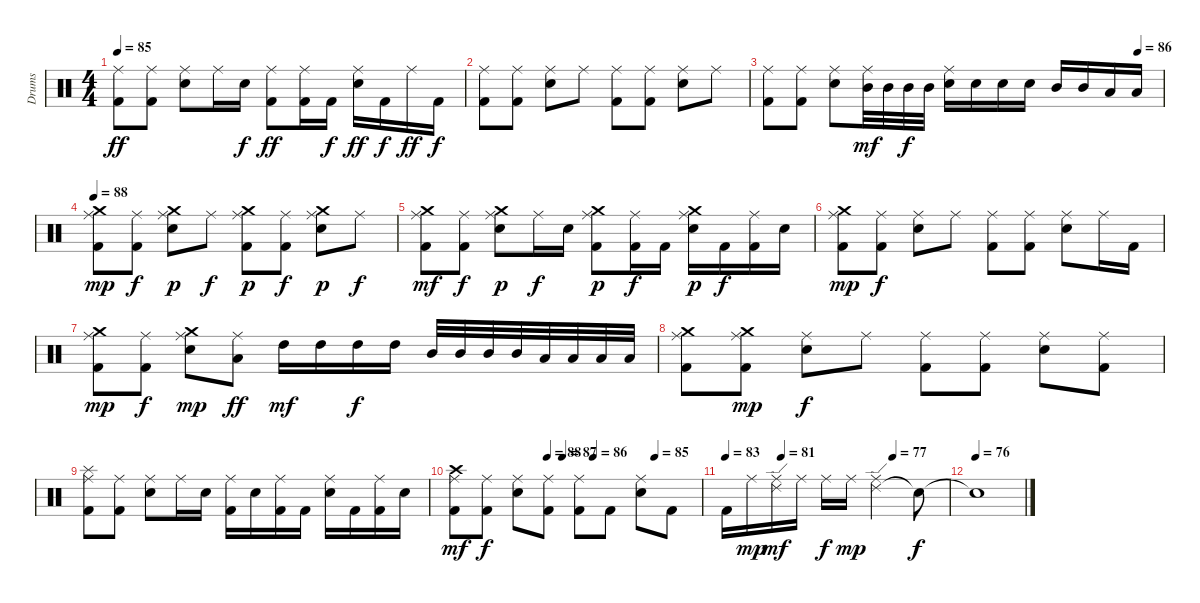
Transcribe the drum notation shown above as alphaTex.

\track ("Drums" "Drums") {instrument percussion}
\staff {score}
\articulation defaults
\ts (4 4)
\tempo 85
\clef neutral
\ks c
("Ride (middle)" "Kick (hit) 2").8{dy ff} ("Ride (middle)" "Kick (hit) 2").8 ("Ride (middle)" "Electric Snare (hit)").8 "Ride (middle)".16 "Electric Snare (hit)".16{dy f} ("Ride (middle)" "Kick (hit) 2").8{dy ff} ("Ride (middle)" "Kick (hit) 2").16 "Kick (hit) 2".16{dy f} ("Ride (middle)" "Electric Snare (hit)").16{dy ff} "Kick (hit) 2".16{dy f} "Ride (middle)".16{dy ff} "Kick (hit) 2".16{dy f} |
("Kick (hit) 2" "Ride (middle)").8 ("Kick (hit) 2" "Ride (middle)").8 ("Electric Snare (hit)" "Ride (middle)").8 "Ride (middle)".8 ("Kick (hit) 2" "Ride (middle)").8 ("Kick (hit) 2" "Ride (middle)").8 ("Electric Snare (hit)" "Ride (middle)").8 "Ride (middle)".8 |
\tempo (86 0.9375)
("Kick (hit) 2" "Ride (middle)").8 ("Kick (hit) 2" "Ride (middle)").8 ("Electric Snare (hit)" "Ride (middle)").8 ("Ride (middle)" "Mid Tom (hit)").32{dy mf} "Mid Tom (hit)".32 "Mid Tom (hit)".32{dy f} "Mid Tom (hit)".32 ("Ride (middle)" "Electric Snare (hit)").16 "Electric Snare (hit)".16 "Electric Snare (hit)".16 "Electric Snare (hit)".16 "Mid Tom (hit)".16 "Mid Tom (hit)".16 "Low Tom (hit)".16 "Low Tom (hit)".16 |
\tempo 88
("Ride (middle)" "Kick (hit) 2" "Crash medium (hit)").8{dy mp} ("Ride (middle)" "Kick (hit) 2").8{dy f} ("Ride (middle)" "Electric Snare (hit)" "Crash medium (hit)").8{dy p} "Ride (middle)".8{dy f} ("Ride (middle)" "Kick (hit) 2" "Crash medium (hit)").8{dy p} ("Ride (middle)" "Kick (hit) 2").8{dy f} ("Ride (middle)" "Electric Snare (hit)" "Crash medium (hit)").8{dy p} "Ride (middle)".8{dy f} |
("Ride (middle)" "Kick (hit) 2" "Crash medium (hit)").8{dy mf} ("Ride (middle)" "Kick (hit) 2").8{dy f} ("Ride (middle)" "Electric Snare (hit)" "Crash medium (hit)").8{dy p} "Ride (middle)".16{dy f} "Electric Snare (hit)".16 ("Ride (middle)" "Kick (hit) 2" "Crash medium (hit)").8{dy p} ("Ride (middle)" "Kick (hit) 2").16{dy f} "Kick (hit) 2".16 ("Ride (middle)" "Electric Snare (hit)" "Crash medium (hit)").16{dy p} "Kick (hit) 2".16{dy f} ("Ride (middle)" "Kick (hit) 2").16 "Electric Snare (hit)".16 |
("Ride (middle)" "Kick (hit) 2" "Crash medium (hit)").8{dy mp} ("Ride (middle)" "Kick (hit) 2").8{dy f} ("Ride (middle)" "Electric Snare (hit)").8 "Ride (middle)".8 ("Ride (middle)" "Kick (hit) 2").8 ("Ride (middle)" "Kick (hit) 2").8 ("Ride (middle)" "Electric Snare (hit)").8 "Ride (middle)".16 "Kick (hit) 2".16 |
("Crash medium (hit)" "Kick (hit) 2" "Ride (middle)").8{dy mp} ("Kick (hit) 2" "Ride (middle)").8{dy f} ("Electric Snare (hit)" "Ride (middle)" "Crash medium (hit)").8{dy mp} ("Ride (middle)" "Low Tom (hit)").8{dy ff} "High Tom (hit)".16{dy mf} "High Tom (hit)".16 "High Tom (hit)".16{dy f} "High Tom (hit)".16 "Mid Tom (hit)".32 "Mid Tom (hit)".32 "Mid Tom (hit)".32 "Mid Tom (hit)".32 "Low Tom (hit)".32 "Low Tom (hit)".32 "Low Tom (hit)".32 "Low Tom (hit)".32 |
("Crash medium (hit)" "Kick (hit) 2" "Ride (middle)").8 ("Crash medium (hit)" "Kick (hit) 2" "Ride (middle)").8{dy mp} ("Electric Snare (hit)" "Ride (middle)").8{dy f} "Ride (middle)".8 ("Kick (hit) 2" "Ride (middle)").8 ("Kick (hit) 2" "Ride (middle)").8 ("Electric Snare (hit)" "Ride (middle)").8 ("Ride (middle)" "Kick (hit) 2").8 |
("Ride (middle)" "Splash (hit)" "Kick (hit) 2").8 ("Ride (middle)" "Kick (hit) 2").8 ("Ride (middle)" "Electric Snare (hit)").8 "Ride (middle)".16 "Electric Snare (hit)".16 ("Ride (middle)" "Kick (hit) 2").16 "Electric Snare (hit)".16 ("Ride (middle)" "Kick (hit) 2").16 "Kick (hit) 2".16 ("Ride (middle)" "Electric Snare (hit)").16 "Kick (hit) 2".16 ("Ride (middle)" "Kick (hit) 2").16 "Electric Snare (hit)".16 |
\tempo (88 0.375)
\tempo (87 0.4375)
\tempo (86 0.5625)
\tempo (85 0.8125)
("Ride (middle)" "Kick (hit) 2" "Crash high (hit)").8{dy mf} ("Ride (middle)" "Kick (hit) 2").8{dy f} ("Ride (middle)" "Electric Snare (hit)").8 ("Ride (middle)" "Kick (hit) 2").8 ("Ride (middle)" "Kick (hit) 2").8 "Kick (hit) 2".8 ("Ride (middle)" "Electric Snare (hit)").8 "Kick (hit) 2".8 |
\tempo 83
\tempo (81 0.25)
\tempo (77 0.75)
"Kick (hit) 2".16 "Ride (middle)".16{dy mp} ("Ride (middle)" "Ride (edge) 2").16{dy mf} "Ride (middle)".16 "Ride (middle)".16{dy f} "Ride (middle)".16{dy mp} ("Ride (edge) 2" "Ride (middle)").2 "Snare (hit)"{t}.8{dy f} |
\tempo (76)
"Snare (hit)"{t}.1
